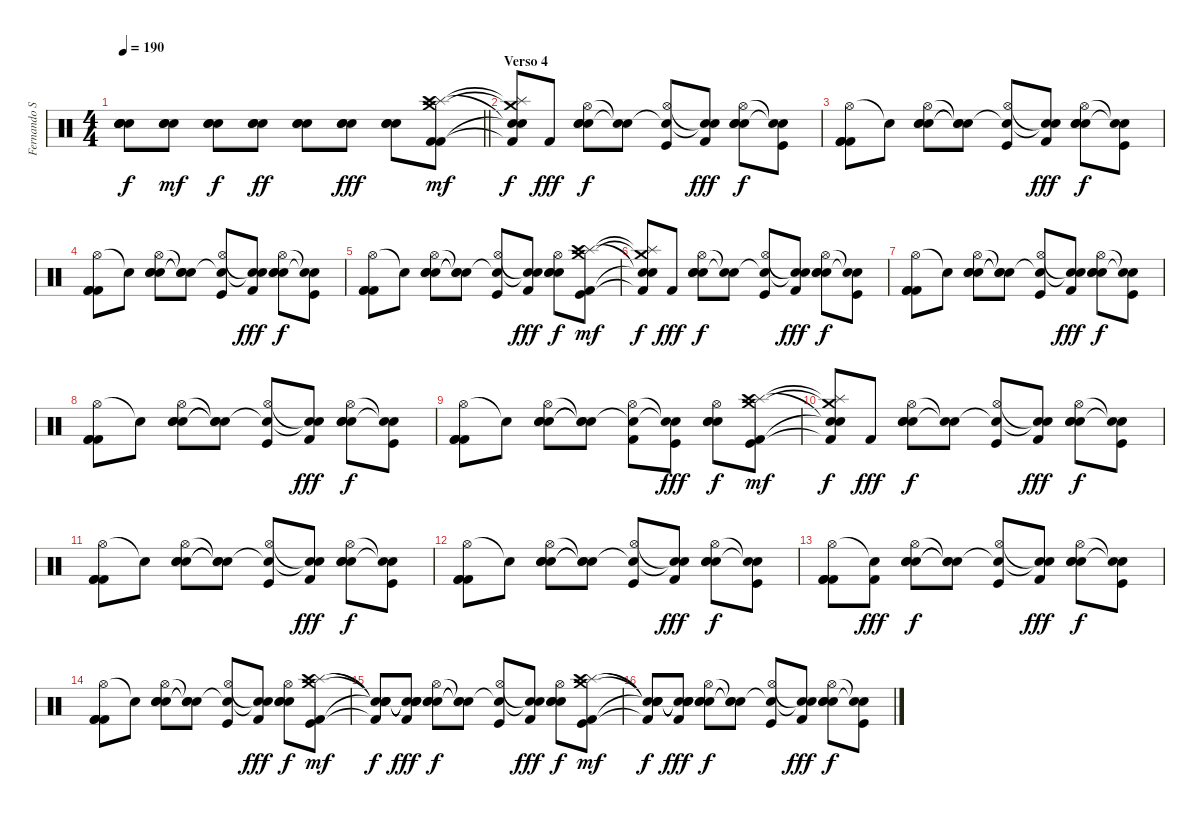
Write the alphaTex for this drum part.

\track ("Fernando Sarcella" "Fernando S") {instrument percussion}
\staff {score}
\articulation defaults
\ts (4 4)
\tempo 190
\clef neutral
\barLineRight lightlight
\ks c
("Snare (hit)"{t} "Snare (hit)"{t} "Snare (hit)"{t} "Snare (hit)"{t} "Snare (hit)"{t}).8{dy f} ("Electric Snare (hit)" "Electric Snare (hit)" "Electric Snare (hit)").8{dy mf} ("Electric Snare (hit)" "Electric Snare (hit)" "Electric Snare (hit)").8{dy f} ("Electric Snare (hit)" "Electric Snare (hit)" "Electric Snare (hit)").8{dy ff} ("Electric Snare (hit)" "Electric Snare (hit)" "Electric Snare (hit)").8 ("Electric Snare (hit)" "Electric Snare (hit)" "Electric Snare (hit)").8{dy fff} ("Electric Snare (hit)" "Electric Snare (hit)" "Electric Snare (hit)").8 ("Crash medium (hit)" "Splash (hit)" "Crash high (hit)" "Kick (hit) 2" "Kick (hit) 2").8{dy mf} |
\section ("" "Verso 4")
("Crash medium (hit)"{t} "Splash (hit)"{t} "Snare (hit)"{t} "Snare (hit)"{t} "Kick (hit) 2"{t}).8{dy f} "Kick (hit) 2".8{dy fff} ("Hi-Hat (open)" "Electric Snare (hit)" "Electric Snare (hit)" "Electric Snare (hit)").8{dy f} ("Snare (hit)"{t} "Snare (hit)"{t}).8 ("Hi-Hat (open)" "Snare (hit)"{t} "Kick (hit)").8 ("Snare (hit)"{t} "Snare (hit)"{t} "Kick (hit) 2").8{dy fff} ("Hi-Hat (open)" "Electric Snare (hit)" "Electric Snare (hit)" "Electric Snare (hit)").8{dy f} ("Snare (hit)"{t} "Snare (hit)"{t} "Kick (hit)").8 |
("Hi-Hat (open)" "Kick (hit) 2" "Kick (hit) 2" "Kick (hit) 2").8 "Snare (hit)"{t}.8 ("Hi-Hat (open)" "Electric Snare (hit)" "Electric Snare (hit)" "Electric Snare (hit)").8 ("Snare (hit)"{t} "Snare (hit)"{t} "Snare (hit)"{t}).8 ("Hi-Hat (open)" "Snare (hit)"{t} "Kick (hit)").8 ("Snare (hit)"{t} "Snare (hit)"{t} "Kick (hit) 2").8{dy fff} ("Hi-Hat (open)" "Electric Snare (hit)" "Electric Snare (hit)" "Electric Snare (hit)").8{dy f} ("Snare (hit)"{t} "Snare (hit)"{t} "Kick (hit)").8 |
("Hi-Hat (open)" "Kick (hit) 2" "Kick (hit) 2" "Kick (hit) 2").8 "Snare (hit)"{t}.8 ("Hi-Hat (open)" "Electric Snare (hit)" "Electric Snare (hit)" "Electric Snare (hit)").8 ("Snare (hit)"{t} "Snare (hit)"{t} "Snare (hit)"{t}).8 ("Hi-Hat (open)" "Snare (hit)"{t} "Kick (hit)").8 ("Snare (hit)"{t} "Snare (hit)"{t} "Kick (hit) 2").8{dy fff} ("Hi-Hat (open)" "Electric Snare (hit)" "Electric Snare (hit)" "Electric Snare (hit)").8{dy f} ("Snare (hit)"{t} "Snare (hit)"{t} "Kick (hit)").8 |
("Hi-Hat (open)" "Kick (hit) 2" "Kick (hit) 2" "Kick (hit) 2").8 "Snare (hit)"{t}.8 ("Hi-Hat (open)" "Electric Snare (hit)" "Electric Snare (hit)" "Electric Snare (hit)").8 ("Snare (hit)"{t} "Snare (hit)"{t} "Snare (hit)"{t}).8 ("Hi-Hat (open)" "Snare (hit)"{t} "Kick (hit)").8 ("Snare (hit)"{t} "Snare (hit)"{t} "Kick (hit) 2").8{dy fff} ("Hi-Hat (open)" "Electric Snare (hit)" "Electric Snare (hit)" "Electric Snare (hit)").8{dy f} ("Crash medium (hit)" "Splash (hit)" "Crash high (hit)" "Kick (hit) 2" "Kick (hit)").8{dy mf} |
("Crash medium (hit)"{t} "Splash (hit)"{t} "Snare (hit)"{t} "Snare (hit)"{t} "Kick (hit) 2"{t}).8{dy f} "Kick (hit) 2".8{dy fff} ("Hi-Hat (open)" "Electric Snare (hit)" "Electric Snare (hit)" "Electric Snare (hit)").8{dy f} ("Snare (hit)"{t} "Snare (hit)"{t}).8 ("Hi-Hat (open)" "Snare (hit)"{t} "Kick (hit)").8 ("Snare (hit)"{t} "Snare (hit)"{t} "Kick (hit) 2").8{dy fff} ("Hi-Hat (open)" "Electric Snare (hit)" "Electric Snare (hit)" "Electric Snare (hit)").8{dy f} ("Snare (hit)"{t} "Snare (hit)"{t} "Kick (hit)").8 |
("Hi-Hat (open)" "Kick (hit) 2" "Kick (hit) 2" "Kick (hit) 2").8 "Snare (hit)"{t}.8 ("Hi-Hat (open)" "Electric Snare (hit)" "Electric Snare (hit)" "Electric Snare (hit)").8 ("Snare (hit)"{t} "Snare (hit)"{t} "Snare (hit)"{t}).8 ("Hi-Hat (open)" "Snare (hit)"{t} "Kick (hit)").8 ("Snare (hit)"{t} "Snare (hit)"{t} "Kick (hit) 2").8{dy fff} ("Hi-Hat (open)" "Electric Snare (hit)" "Electric Snare (hit)" "Electric Snare (hit)").8{dy f} ("Snare (hit)"{t} "Snare (hit)"{t} "Kick (hit)").8 |
("Hi-Hat (open)" "Kick (hit) 2" "Kick (hit) 2" "Kick (hit) 2").8 "Snare (hit)"{t}.8 ("Hi-Hat (open)" "Electric Snare (hit)" "Electric Snare (hit)" "Electric Snare (hit)").8 ("Snare (hit)"{t} "Snare (hit)"{t} "Snare (hit)"{t}).8 ("Hi-Hat (open)" "Snare (hit)"{t} "Kick (hit)").8 ("Snare (hit)"{t} "Snare (hit)"{t} "Kick (hit) 2").8{dy fff} ("Hi-Hat (open)" "Electric Snare (hit)" "Electric Snare (hit)" "Electric Snare (hit)").8{dy f} ("Snare (hit)"{t} "Snare (hit)"{t} "Kick (hit)").8 |
("Hi-Hat (open)" "Kick (hit) 2" "Kick (hit) 2" "Kick (hit) 2").8 "Snare (hit)"{t}.8 ("Hi-Hat (open)" "Electric Snare (hit)" "Electric Snare (hit)" "Electric Snare (hit)").8 ("Snare (hit)"{t} "Snare (hit)"{t} "Snare (hit)"{t}).8 ("Hi-Hat (open)" "Snare (hit)"{t} "Kick (hit) 2").8 ("Snare (hit)"{t} "Snare (hit)"{t} "Kick (hit)").8{dy fff} ("Hi-Hat (open)" "Electric Snare (hit)" "Electric Snare (hit)" "Electric Snare (hit)").8{dy f} ("Crash medium (hit)" "Splash (hit)" "Crash high (hit)" "Kick (hit) 2" "Kick (hit)").8{dy mf} |
("Crash medium (hit)"{t} "Splash (hit)"{t} "Snare (hit)"{t} "Snare (hit)"{t} "Kick (hit) 2"{t}).8{dy f} "Kick (hit) 2".8{dy fff} ("Hi-Hat (open)" "Electric Snare (hit)" "Electric Snare (hit)" "Electric Snare (hit)").8{dy f} ("Snare (hit)"{t} "Snare (hit)"{t}).8 ("Hi-Hat (open)" "Snare (hit)"{t} "Kick (hit)").8 ("Snare (hit)"{t} "Snare (hit)"{t} "Kick (hit) 2").8{dy fff} ("Hi-Hat (open)" "Electric Snare (hit)" "Electric Snare (hit)" "Electric Snare (hit)").8{dy f} ("Snare (hit)"{t} "Snare (hit)"{t} "Kick (hit)").8 |
("Hi-Hat (open)" "Kick (hit) 2" "Kick (hit) 2" "Kick (hit) 2").8 "Snare (hit)"{t}.8 ("Hi-Hat (open)" "Electric Snare (hit)" "Electric Snare (hit)" "Electric Snare (hit)").8 ("Snare (hit)"{t} "Snare (hit)"{t} "Snare (hit)"{t}).8 ("Hi-Hat (open)" "Snare (hit)"{t} "Kick (hit)").8 ("Snare (hit)"{t} "Snare (hit)"{t} "Kick (hit) 2").8{dy fff} ("Hi-Hat (open)" "Electric Snare (hit)" "Electric Snare (hit)" "Electric Snare (hit)").8{dy f} ("Snare (hit)"{t} "Snare (hit)"{t} "Kick (hit)").8 |
("Hi-Hat (open)" "Kick (hit) 2" "Kick (hit) 2" "Kick (hit) 2").8 "Snare (hit)"{t}.8 ("Hi-Hat (open)" "Electric Snare (hit)" "Electric Snare (hit)" "Electric Snare (hit)").8 ("Snare (hit)"{t} "Snare (hit)"{t} "Snare (hit)"{t}).8 ("Hi-Hat (open)" "Snare (hit)"{t} "Kick (hit)").8 ("Snare (hit)"{t} "Snare (hit)"{t} "Kick (hit) 2").8{dy fff} ("Hi-Hat (open)" "Electric Snare (hit)" "Electric Snare (hit)" "Electric Snare (hit)").8{dy f} ("Snare (hit)"{t} "Snare (hit)"{t} "Kick (hit)").8 |
("Hi-Hat (open)" "Kick (hit) 2" "Kick (hit) 2" "Kick (hit) 2").8 ("Snare (hit)"{t} "Kick (hit) 2").8{dy fff} ("Hi-Hat (open)" "Electric Snare (hit)" "Electric Snare (hit)" "Electric Snare (hit)").8{dy f} ("Snare (hit)"{t} "Snare (hit)"{t} "Snare (hit)"{t}).8 ("Hi-Hat (open)" "Snare (hit)"{t} "Kick (hit)").8 ("Snare (hit)"{t} "Snare (hit)"{t} "Kick (hit) 2").8{dy fff} ("Hi-Hat (open)" "Electric Snare (hit)" "Electric Snare (hit)" "Electric Snare (hit)").8{dy f} ("Snare (hit)"{t} "Snare (hit)"{t} "Kick (hit)").8 |
("Hi-Hat (open)" "Kick (hit) 2" "Kick (hit) 2" "Kick (hit) 2").8 "Snare (hit)"{t}.8 ("Hi-Hat (open)" "Electric Snare (hit)" "Electric Snare (hit)" "Electric Snare (hit)").8 ("Snare (hit)"{t} "Snare (hit)"{t} "Snare (hit)"{t}).8 ("Hi-Hat (open)" "Snare (hit)"{t} "Kick (hit)").8 ("Snare (hit)"{t} "Snare (hit)"{t} "Kick (hit) 2").8{dy fff} ("Hi-Hat (open)" "Electric Snare (hit)" "Electric Snare (hit)" "Electric Snare (hit)").8{dy f} ("Crash medium (hit)" "Splash (hit)" "Crash high (hit)" "Kick (hit) 2" "Kick (hit)").8{dy mf} |
("Snare (hit)"{t} "Snare (hit)"{t} "Snare (hit)"{t} "Snare (hit)"{t} "Kick (hit) 2"{t}).8{dy f} ("Snare (hit)"{t} "Snare (hit)"{t} "Snare (hit)"{t} "Snare (hit)"{t} "Kick (hit) 2").8{dy fff} ("Hi-Hat (open)" "Electric Snare (hit)" "Electric Snare (hit)" "Electric Snare (hit)").8{dy f} ("Snare (hit)"{t} "Snare (hit)"{t} "Snare (hit)"{t}).8 ("Hi-Hat (open)" "Snare (hit)"{t} "Kick (hit)").8 ("Snare (hit)"{t} "Snare (hit)"{t} "Kick (hit) 2").8{dy fff} ("Hi-Hat (open)" "Electric Snare (hit)" "Electric Snare (hit)" "Electric Snare (hit)").8{dy f} ("Crash medium (hit)" "Splash (hit)" "Crash high (hit)" "Kick (hit) 2" "Kick (hit)").8{dy mf} |
("Snare (hit)"{t} "Snare (hit)"{t} "Snare (hit)"{t} "Snare (hit)"{t} "Kick (hit) 2"{t}).8{dy f} ("Snare (hit)"{t} "Snare (hit)"{t} "Snare (hit)"{t} "Snare (hit)"{t} "Kick (hit) 2").8{dy fff} ("Hi-Hat (open)" "Electric Snare (hit)" "Electric Snare (hit)" "Electric Snare (hit)").8{dy f} ("Snare (hit)"{t} "Snare (hit)"{t} "Snare (hit)"{t}).8 ("Hi-Hat (open)" "Snare (hit)"{t} "Kick (hit)").8 ("Snare (hit)"{t} "Snare (hit)"{t} "Kick (hit) 2").8{dy fff} ("Hi-Hat (open)" "Electric Snare (hit)" "Electric Snare (hit)" "Electric Snare (hit)").8{dy f} ("Snare (hit)"{t} "Snare (hit)"{t} "Kick (hit)").8
